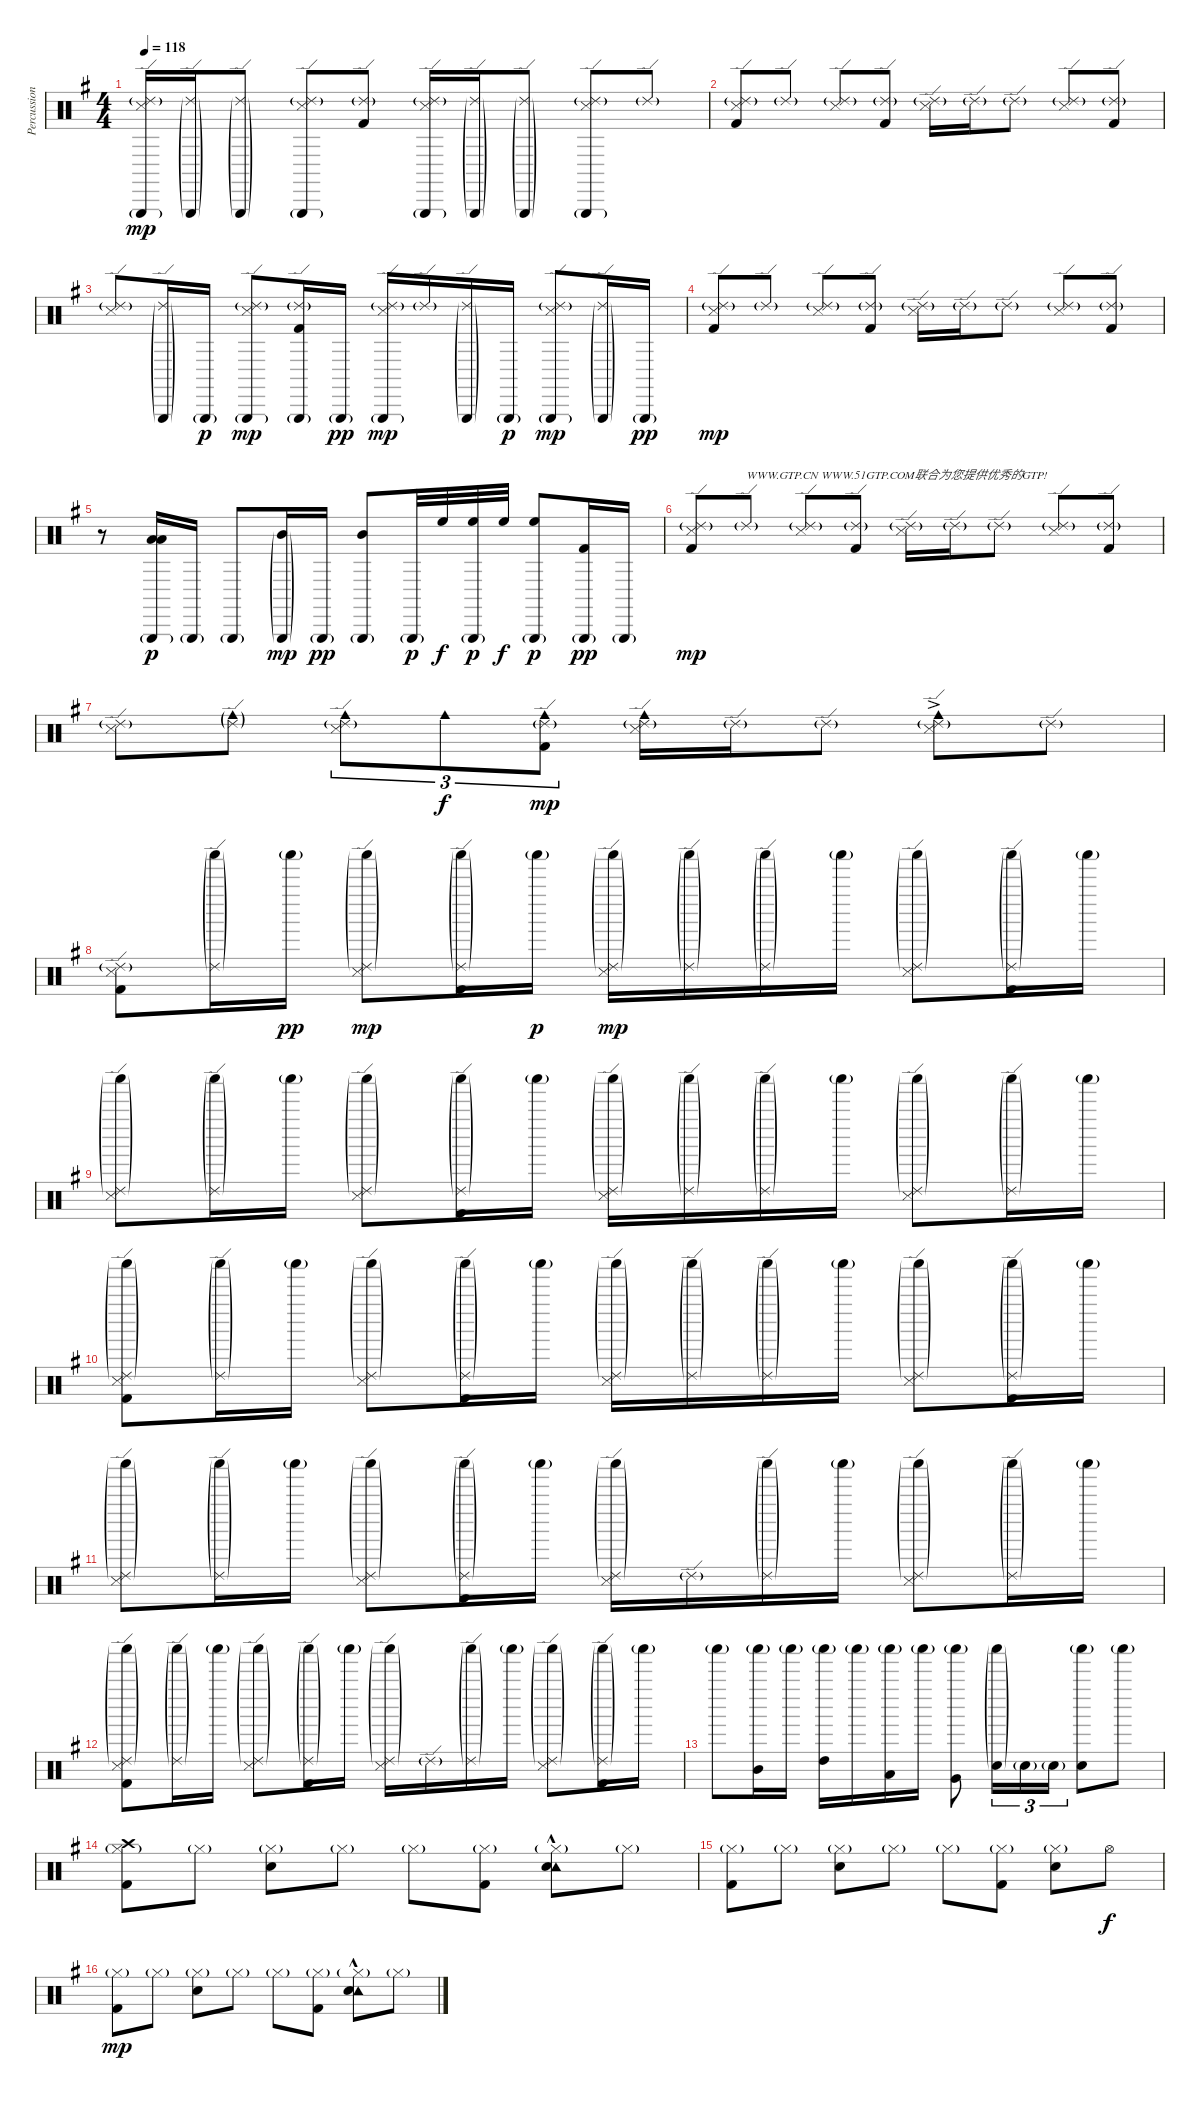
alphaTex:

\track ("Percussion" "Percussion") {instrument percussion}
\staff {score}
\articulation defaults
\ts (4 4)
\tempo 118
\clef neutral
\ks eminor
("Triangle (hit)"{g} "Ride (edge) 2"{g} "Snare (side stick) 3").16{dy mp} ("Triangle (hit)"{g} "Ride (edge) 2"{g}).16 ("Triangle (hit)"{g} "Ride (edge) 2"{g}).8 ("Triangle (hit)"{g} "Ride (edge) 2"{g} "Snare (side stick) 3").8 ("Ride (edge) 2"{g} "Kick (hit) 2").8 ("Triangle (hit)"{g} "Ride (edge) 2"{g} "Snare (side stick) 3").16 ("Triangle (hit)"{g} "Ride (edge) 2"{g}).16 ("Triangle (hit)"{g} "Ride (edge) 2"{g}).8 ("Triangle (hit)"{g} "Ride (edge) 2"{g} "Snare (side stick) 3").8 "Ride (edge) 2"{g}.8 |
("Ride (edge) 2"{g} "Snare (side stick) 3" "Kick (hit) 2").8 "Ride (edge) 2"{g}.8 ("Ride (edge) 2"{g} "Snare (side stick) 3").8 ("Ride (edge) 2"{g} "Kick (hit) 2").8 ("Ride (edge) 2"{g} "Snare (side stick) 3").16 "Ride (edge) 2"{g}.16 "Ride (edge) 2"{g}.8 ("Ride (edge) 2"{g} "Snare (side stick) 3").8 ("Ride (edge) 2"{g} "Kick (hit) 2").8 |
("Ride (edge) 2"{g} "Snare (side stick) 3").8 ("Triangle (hit)"{g} "Ride (edge) 2"{g}).16 "Triangle (hit)"{g}.16{dy p} ("Triangle (hit)"{g} "Ride (edge) 2"{g} "Snare (side stick) 3").8{dy mp} ("Triangle (hit)"{g} "Ride (edge) 2"{g} "Kick (hit) 2").16 "Triangle (hit)"{g}.16{dy pp} ("Triangle (hit)"{g} "Ride (edge) 2"{g} "Snare (side stick) 3").16{dy mp} "Ride (edge) 2"{g}.16 ("Triangle (hit)"{g} "Ride (edge) 2"{g}).16 "Triangle (hit)"{g}.16{dy p} ("Triangle (hit)"{g} "Ride (edge) 2"{g} "Snare (side stick) 3").8{dy mp} ("Triangle (hit)"{g} "Ride (edge) 2"{g}).16 "Triangle (hit)"{g}.16{dy pp} |
("Ride (edge) 2"{g} "Snare (side stick) 3" "Kick (hit) 2").8{dy mp} "Ride (edge) 2"{g}.8 ("Ride (edge) 2"{g} "Snare (side stick) 3").8 ("Ride (edge) 2"{g} "Kick (hit) 2").8 ("Ride (edge) 2"{g} "Snare (side stick) 3").16 "Ride (edge) 2"{g}.16 "Ride (edge) 2"{g}.8 ("Ride (edge) 2"{g} "Snare (side stick) 3").8 ("Ride (edge) 2"{g} "Kick (hit) 2").8 |
r.8 ("Triangle (hit)"{g} "Low Tom (hit)" "Low Tom (hit)").16{bu 240 dy p} "Triangle (hit)"{g}.16 "Triangle (hit)"{g}.8 ("Triangle (hit)"{g} "Mid Tom (hit)"{g}).16{dy mp} "Triangle (hit)"{g}.16{dy pp} ("Triangle (hit)"{g} "Mid Tom (hit)").8 "Triangle (hit)"{g}.32{dy p} "High Floor Tom (hit)".32{dy f} ("Triangle (hit)"{g} "High Floor Tom (hit)").32{dy p} "High Floor Tom (hit)".32{dy f} ("Triangle (hit)"{g} "High Floor Tom (hit)").8{dy p} ("Triangle (hit)"{g} "Kick (hit) 2").16{dy pp} "Triangle (hit)"{g}.16 |
("Ride (edge) 2"{g} "Snare (side stick) 3" "Kick (hit) 2").8{dy mp} "Ride (edge) 2"{g}.8{txt "WWW.GTP.CN WWW.51GTP.COM联合为您提供优秀的GTP!"} ("Ride (edge) 2"{g} "Snare (side stick) 3").8 ("Ride (edge) 2"{g} "Kick (hit) 2").8 ("Ride (edge) 2"{g} "Snare (side stick) 3").16 "Ride (edge) 2"{g}.16 "Ride (edge) 2"{g}.8 ("Ride (edge) 2"{g} "Snare (side stick) 3").8 ("Ride (edge) 2"{g} "Kick (hit) 2").8 |
("Ride (edge) 2"{g} "Snare (side stick) 3").8 ("Cowbell medium (hit)"{g} "Ride (edge) 2"{g}).8 ("Cowbell medium (hit)" "Ride (edge) 2"{g} "Snare (side stick) 3").8{tu (3 2)} "Cowbell medium (hit)".8{tu (3 2) dy f} ("Cowbell medium (hit)" "Ride (edge) 2"{g} "Kick (hit) 2").8{tu (3 2) dy mp} ("Cowbell medium (hit)" "Ride (edge) 2"{g} "Snare (side stick) 3").16 "Ride (edge) 2"{g}.16 "Ride (edge) 2"{g}.8 ("Cowbell medium (hit)"{ac} "Ride (edge) 2"{g} "Snare (side stick) 3").8 "Ride (edge) 2"{g}.8 |
("Ride (edge) 2"{g} "Snare (side stick) 3" "Kick (hit) 2").8 ("Shaker (hit)"{g} "Ride (edge) 2"{g}).16 "Shaker (hit)"{g}.16{dy pp} ("Shaker (hit)"{g} "Ride (edge) 2"{g} "Snare (side stick) 3").8{dy mp} ("Shaker (hit)"{g} "Ride (edge) 2"{g} "Kick (hit) 2").16 "Shaker (hit)"{g}.16{dy p} ("Shaker (hit)"{g} "Ride (edge) 2"{g} "Snare (side stick) 3").16{dy mp} ("Shaker (hit)"{g} "Ride (edge) 2"{g}).16 ("Shaker (hit)"{g} "Ride (edge) 2"{g}).16 "Shaker (hit)"{g}.16 ("Shaker (hit)"{g} "Ride (edge) 2"{g} "Snare (side stick) 3").8 ("Shaker (hit)"{g} "Ride (edge) 2"{g} "Kick (hit) 2").16 "Shaker (hit)"{g}.16 |
("Shaker (hit)"{g} "Ride (edge) 2"{g} "Snare (side stick) 3").8 ("Shaker (hit)"{g} "Ride (edge) 2"{g}).16 "Shaker (hit)"{g}.16 ("Shaker (hit)"{g} "Ride (edge) 2"{g} "Snare (side stick) 3").8 ("Shaker (hit)"{g} "Ride (edge) 2"{g} "Kick (hit) 2").16 "Shaker (hit)"{g}.16 ("Shaker (hit)"{g} "Ride (edge) 2"{g} "Snare (side stick) 3").16 ("Shaker (hit)"{g} "Ride (edge) 2"{g}).16 ("Shaker (hit)"{g} "Ride (edge) 2"{g}).16 "Shaker (hit)"{g}.16 ("Shaker (hit)"{g} "Ride (edge) 2"{g} "Snare (side stick) 3").8 ("Shaker (hit)"{g} "Ride (edge) 2"{g}).16 "Shaker (hit)"{g}.16 |
("Shaker (hit)"{g} "Ride (edge) 2"{g} "Snare (side stick) 3" "Kick (hit) 2").8 ("Shaker (hit)"{g} "Ride (edge) 2"{g}).16 "Shaker (hit)"{g}.16 ("Shaker (hit)"{g} "Ride (edge) 2"{g} "Snare (side stick) 3").8 ("Shaker (hit)"{g} "Ride (edge) 2"{g} "Kick (hit) 2").16 "Shaker (hit)"{g}.16 ("Shaker (hit)"{g} "Ride (edge) 2"{g} "Snare (side stick) 3").16 ("Shaker (hit)"{g} "Ride (edge) 2"{g}).16 ("Shaker (hit)"{g} "Ride (edge) 2"{g}).16 "Shaker (hit)"{g}.16 ("Shaker (hit)"{g} "Ride (edge) 2"{g} "Snare (side stick) 3").8 ("Shaker (hit)"{g} "Ride (edge) 2"{g} "Kick (hit) 2").16 "Shaker (hit)"{g}.16 |
("Shaker (hit)"{g} "Ride (edge) 2"{g} "Snare (side stick) 3").8 ("Shaker (hit)"{g} "Ride (edge) 2"{g}).16 "Shaker (hit)"{g}.16 ("Shaker (hit)"{g} "Ride (edge) 2"{g} "Snare (side stick) 3").8 ("Shaker (hit)"{g} "Ride (edge) 2"{g} "Kick (hit) 2").16 "Shaker (hit)"{g}.16 ("Shaker (hit)"{g} "Ride (edge) 2"{g} "Snare (side stick) 3").16 "Ride (edge) 2"{g}.16 ("Shaker (hit)"{g} "Ride (edge) 2"{g}).16 "Shaker (hit)"{g}.16 ("Shaker (hit)"{g} "Ride (edge) 2"{g} "Snare (side stick) 3").8 ("Shaker (hit)"{g} "Ride (edge) 2"{g}).16 "Shaker (hit)"{g}.16 |
("Shaker (hit)"{g} "Ride (edge) 2"{g} "Snare (side stick) 3" "Kick (hit) 2").8 ("Shaker (hit)"{g} "Ride (edge) 2"{g}).16 "Shaker (hit)"{g}.16 ("Shaker (hit)"{g} "Ride (edge) 2"{g} "Snare (side stick) 3").8 ("Shaker (hit)"{g} "Ride (edge) 2"{g} "Kick (hit) 2").16 "Shaker (hit)"{g}.16 ("Shaker (hit)"{g} "Ride (edge) 2"{g} "Snare (side stick) 3").16 "Ride (edge) 2"{g}.16 ("Shaker (hit)"{g} "Ride (edge) 2"{g}).16 "Shaker (hit)"{g}.16 ("Shaker (hit)"{g} "Ride (edge) 2"{g} "Snare (side stick) 3").8 ("Shaker (hit)"{g} "Ride (edge) 2"{g} "Kick (hit) 2").16 "Shaker (hit)"{g}.16 |
"Shaker (hit)"{g}.8 ("Shaker (hit)"{g} "Mid Tom (hit)").16 "Shaker (hit)"{g}.16 ("Shaker (hit)"{g} "High Tom (hit)").16 "Shaker (hit)"{g}.16 ("Shaker (hit)"{g} "Low Tom (hit)").16 "Shaker (hit)"{g}.16 ("Shaker (hit)"{g} "Very Low Tom (hit)").8 ("Shaker (hit)"{g} "Electric Snare (hit)"{g}).16{tu (3 2)} "Electric Snare (hit)"{g}.16{tu (3 2)} "Electric Snare (hit)"{g}.16{tu (3 2)} ("Shaker (hit)"{g} "Electric Snare (hit)").8 "Shaker (hit)"{g}.8 |
("Crash high (hit)" "Hi-Hat (closed)"{g} "Kick (hit) 2").8 "Hi-Hat (closed)"{g}.8 ("Hi-Hat (closed)"{g} "Electric Snare (hit)").8 "Hi-Hat (closed)"{g}.8 "Hi-Hat (closed)"{g}.8 ("Hi-Hat (closed)"{g} "Kick (hit) 2").8 ("Tambourine (hit)"{hac} "Hi-Hat (closed)"{g} "Electric Snare (hit)").8 "Hi-Hat (closed)"{g}.8 |
("Hi-Hat (closed)"{g} "Kick (hit) 2").8 "Hi-Hat (closed)"{g}.8 ("Hi-Hat (closed)"{g} "Electric Snare (hit)").8 "Hi-Hat (closed)"{g}.8 "Hi-Hat (closed)"{g}.8 ("Hi-Hat (closed)"{g} "Kick (hit) 2").8 ("Hi-Hat (closed)"{g} "Electric Snare (hit)").8 "Hi-Hat (open)".8{dy f} |
("Hi-Hat (closed)"{g} "Kick (hit) 2").8{dy mp} "Hi-Hat (closed)"{g}.8 ("Hi-Hat (closed)"{g} "Electric Snare (hit)").8 "Hi-Hat (closed)"{g}.8 "Hi-Hat (closed)"{g}.8 ("Hi-Hat (closed)"{g} "Kick (hit) 2").8 ("Tambourine (hit)"{hac} "Hi-Hat (closed)"{g} "Electric Snare (hit)").8 "Hi-Hat (closed)"{g}.8
